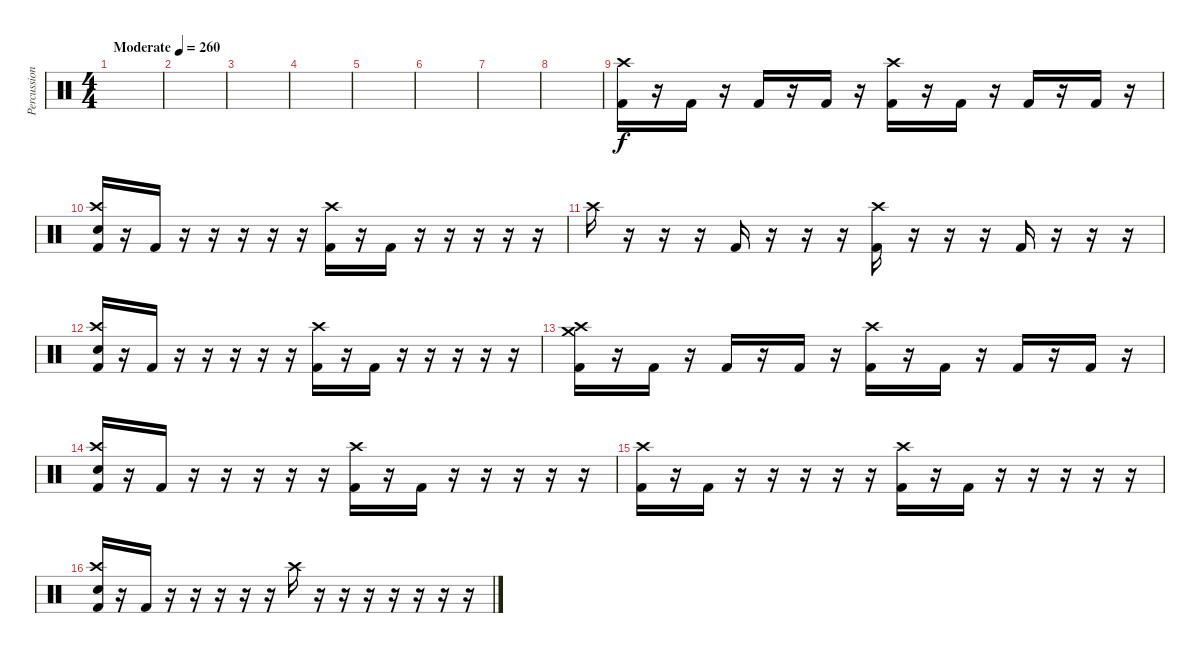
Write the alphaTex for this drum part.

\track ("Percussion" "Percussion") {instrument percussion}
\staff {score}
\articulation defaults
\ts (4 4)
\tempo (260 "Moderate")
\clef neutral
\ks c
|
|
|
|
|
|
|
|
("Kick (hit) 2" "Crash high (hit)").16 r.16 "Kick (hit) 2".16 r.16 "Kick (hit) 2".16 r.16 "Kick (hit) 2".16 r.16 ("Kick (hit) 2" "Crash high (hit)").16 r.16 "Kick (hit) 2".16 r.16 "Kick (hit) 2".16 r.16 "Kick (hit) 2".16 r.16 |
("Kick (hit) 2" "Electric Snare (hit)" "Crash high (hit)").16 r.16 "Kick (hit) 2".16 r.16 r.16 r.16 r.16 r.16 ("Kick (hit) 2" "Crash high (hit)").16 r.16 "Kick (hit) 2".16 r.16 r.16 r.16 r.16 r.16 |
"Crash high (hit)".16 r.16 r.16 r.16 "Kick (hit) 2".16 r.16 r.16 r.16 ("Kick (hit) 2" "Crash high (hit)").16 r.16 r.16 r.16 "Kick (hit) 2".16 r.16 r.16 r.16 |
("Kick (hit) 2" "Snare (hit) 2" "Crash high (hit)").16 r.16 "Kick (hit) 2".16 r.16 r.16 r.16 r.16 r.16 ("Kick (hit) 2" "Crash high (hit)").16 r.16 "Kick (hit) 2".16 r.16 r.16 r.16 r.16 r.16 |
("Kick (hit) 2" "Crash medium (hit)" "Crash high (hit)").16 r.16 "Kick (hit) 2".16 r.16 "Kick (hit) 2".16 r.16 "Kick (hit) 2".16 r.16 ("Kick (hit) 2" "Crash high (hit)").16 r.16 "Kick (hit) 2".16 r.16 "Kick (hit) 2".16 r.16 "Kick (hit) 2".16 r.16 |
("Kick (hit) 2" "Snare (hit) 2" "Crash high (hit)").16 r.16 "Kick (hit) 2".16 r.16 r.16 r.16 r.16 r.16 ("Kick (hit) 2" "Crash high (hit)").16 r.16 "Kick (hit) 2".16 r.16 r.16 r.16 r.16 r.16 |
("Kick (hit) 2" "Crash high (hit)").16 r.16 "Kick (hit) 2".16 r.16 r.16 r.16 r.16 r.16 ("Kick (hit) 2" "Crash high (hit)").16 r.16 "Kick (hit) 2".16 r.16 r.16 r.16 r.16 r.16 |
("Kick (hit) 2" "Snare (hit) 2" "Crash high (hit)").16 r.16 "Kick (hit) 2".16 r.16 r.16 r.16 r.16 r.16 "Crash high (hit)".16 r.16 r.16 r.16 r.16 r.16 r.16 r.16
